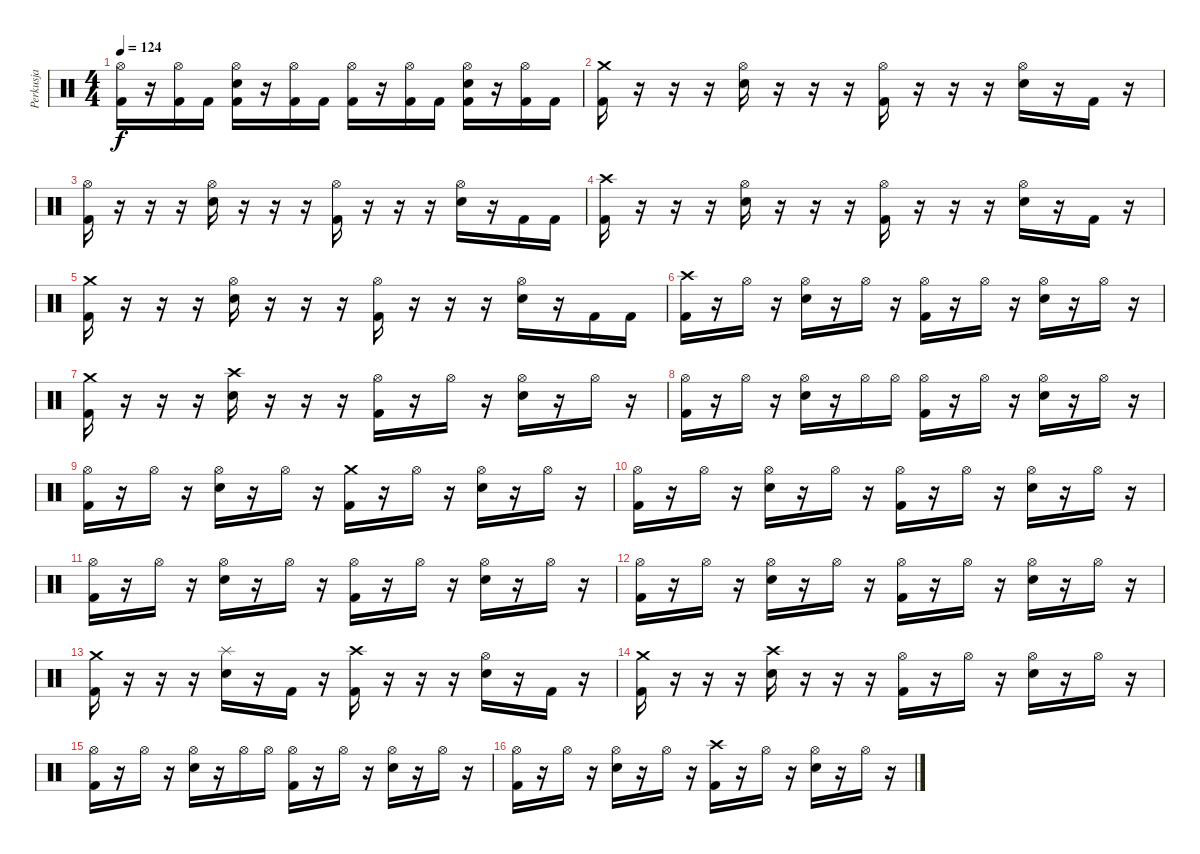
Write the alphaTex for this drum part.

\track ("Perkusja" "Perkusja") {instrument percussion}
\staff {score}
\articulation defaults
\ts (4 4)
\tempo 124
\clef neutral
\ks c
("Hi-Hat (open)" "Kick (hit) 2").16{dy f} r.16 ("Hi-Hat (open)" "Kick (hit) 2").16 "Kick (hit) 2".16 ("Snare (hit) 2" "Hi-Hat (open)" "Kick (hit) 2").16 r.16 ("Hi-Hat (open)" "Kick (hit) 2").16 "Kick (hit) 2".16 ("Hi-Hat (open)" "Kick (hit) 2").16 r.16 ("Hi-Hat (open)" "Kick (hit) 2").16 "Kick (hit) 2".16 ("Snare (hit) 2" "Hi-Hat (open)" "Kick (hit) 2").16 r.16 ("Hi-Hat (open)" "Kick (hit) 2").16 "Kick (hit) 2".16 |
("Crash medium (hit)" "Kick (hit) 2").16 r.16 r.16 r.16 ("Snare (hit) 2" "Hi-Hat (open)").16 r.16 r.16 r.16 ("Hi-Hat (open)" "Kick (hit) 2").16 r.16 r.16 r.16 ("Snare (hit) 2" "Hi-Hat (open)").16 r.16 "Kick (hit) 2".16 r.16 |
("Hi-Hat (open)" "Kick (hit) 2").16 r.16 r.16 r.16 ("Snare (hit) 2" "Hi-Hat (open)").16 r.16 r.16 r.16 ("Hi-Hat (open)" "Kick (hit) 2").16 r.16 r.16 r.16 ("Snare (hit) 2" "Hi-Hat (open)").16 r.16 "Kick (hit) 2".16 "Kick (hit) 2".16 |
("Crash high (hit)" "Kick (hit) 2").16 r.16 r.16 r.16 ("Snare (hit) 2" "Hi-Hat (open)").16 r.16 r.16 r.16 ("Hi-Hat (open)" "Kick (hit) 2").16 r.16 r.16 r.16 ("Snare (hit) 2" "Hi-Hat (open)").16 r.16 "Kick (hit) 2".16 r.16 |
("Crash medium (hit)" "Kick (hit) 2").16 r.16 r.16 r.16 ("Snare (hit) 2" "Hi-Hat (open)").16 r.16 r.16 r.16 ("Hi-Hat (open)" "Kick (hit) 2").16 r.16 r.16 r.16 ("Snare (hit) 2" "Hi-Hat (open)").16 r.16 "Kick (hit) 2".16 "Kick (hit) 2".16 |
("Crash high (hit)" "Kick (hit) 2").16 r.16 "Hi-Hat (open)".16 r.16 ("Snare (hit) 2" "Hi-Hat (open)").16 r.16 "Hi-Hat (open)".16 r.16 ("Hi-Hat (open)" "Kick (hit) 2").16 r.16 "Hi-Hat (open)".16 r.16 ("Snare (hit) 2" "Hi-Hat (open)").16 r.16 "Hi-Hat (open)".16 r.16 |
("Crash medium (hit)" "Kick (hit) 2").16 r.16 r.16 r.16 ("Snare (hit) 2" "Crash high (hit)").16 r.16 r.16 r.16 ("Hi-Hat (open)" "Kick (hit) 2").16 r.16 "Hi-Hat (open)".16 r.16 ("Snare (hit) 2" "Hi-Hat (open)").16 r.16 "Hi-Hat (open)".16 r.16 |
("Hi-Hat (open)" "Kick (hit) 2").16 r.16 "Hi-Hat (open)".16 r.16 ("Snare (hit) 2" "Hi-Hat (open)").16 r.16 "Hi-Hat (open)".16 "Hi-Hat (open)".16 ("Hi-Hat (open)" "Kick (hit) 2").16 r.16 "Hi-Hat (open)".16 r.16 ("Snare (hit) 2" "Hi-Hat (open)").16 r.16 "Hi-Hat (open)".16 r.16 |
("Hi-Hat (open)" "Kick (hit) 2").16 r.16 "Hi-Hat (open)".16 r.16 ("Snare (hit) 2" "Hi-Hat (open)").16 r.16 "Hi-Hat (open)".16 r.16 ("Crash medium (hit)" "Kick (hit) 2").16 r.16 "Hi-Hat (open)".16 r.16 ("Snare (hit) 2" "Hi-Hat (open)").16 r.16 "Hi-Hat (open)".16 r.16 |
("Hi-Hat (open)" "Kick (hit) 2").16 r.16 "Hi-Hat (open)".16 r.16 ("Snare (hit) 2" "Hi-Hat (open)").16 r.16 "Hi-Hat (open)".16 r.16 ("Hi-Hat (open)" "Kick (hit) 2").16 r.16 "Hi-Hat (open)".16 r.16 ("Snare (hit) 2" "Hi-Hat (open)").16 r.16 "Hi-Hat (open)".16 r.16 |
("Hi-Hat (open)" "Kick (hit) 2").16 r.16 "Hi-Hat (open)".16 r.16 ("Snare (hit) 2" "Hi-Hat (open)").16 r.16 "Hi-Hat (open)".16 r.16 ("Hi-Hat (open)" "Kick (hit) 2").16 r.16 "Hi-Hat (open)".16 r.16 ("Snare (hit) 2" "Hi-Hat (open)").16 r.16 "Hi-Hat (open)".16 r.16 |
("Hi-Hat (open)" "Kick (hit) 2").16 r.16 "Hi-Hat (open)".16 r.16 ("Snare (hit) 2" "Hi-Hat (open)").16 r.16 "Hi-Hat (open)".16 r.16 ("Hi-Hat (open)" "Kick (hit) 2").16 r.16 "Hi-Hat (open)".16 r.16 ("Snare (hit) 2" "Hi-Hat (open)").16 r.16 "Hi-Hat (open)".16 r.16 |
("Crash medium (hit)" "Kick (hit) 2").16 r.16 r.16 r.16 ("Snare (hit) 2" "Splash (hit)").16 r.16 "Kick (hit) 2".16 r.16 ("Crash high (hit)" "Kick (hit) 2").16 r.16 r.16 r.16 ("Snare (hit) 2" "Hi-Hat (open)").16 r.16 "Kick (hit) 2".16 r.16 |
("Crash medium (hit)" "Kick (hit) 2").16 r.16 r.16 r.16 ("Snare (hit) 2" "Crash high (hit)").16 r.16 r.16 r.16 ("Hi-Hat (open)" "Kick (hit) 2").16 r.16 "Hi-Hat (open)".16 r.16 ("Snare (hit) 2" "Hi-Hat (open)").16 r.16 "Hi-Hat (open)".16 r.16 |
("Hi-Hat (open)" "Kick (hit) 2").16 r.16 "Hi-Hat (open)".16 r.16 ("Snare (hit) 2" "Hi-Hat (open)").16 r.16 "Hi-Hat (open)".16 "Hi-Hat (open)".16 ("Hi-Hat (open)" "Kick (hit) 2").16 r.16 "Hi-Hat (open)".16 r.16 ("Snare (hit) 2" "Hi-Hat (open)").16 r.16 "Hi-Hat (open)".16 r.16 |
("Hi-Hat (open)" "Kick (hit) 2").16 r.16 "Hi-Hat (open)".16 r.16 ("Snare (hit) 2" "Hi-Hat (open)").16 r.16 "Hi-Hat (open)".16 r.16 ("Crash high (hit)" "Kick (hit) 2").16 r.16 "Hi-Hat (open)".16 r.16 ("Snare (hit) 2" "Hi-Hat (open)").16 r.16 "Hi-Hat (open)".16 r.16
